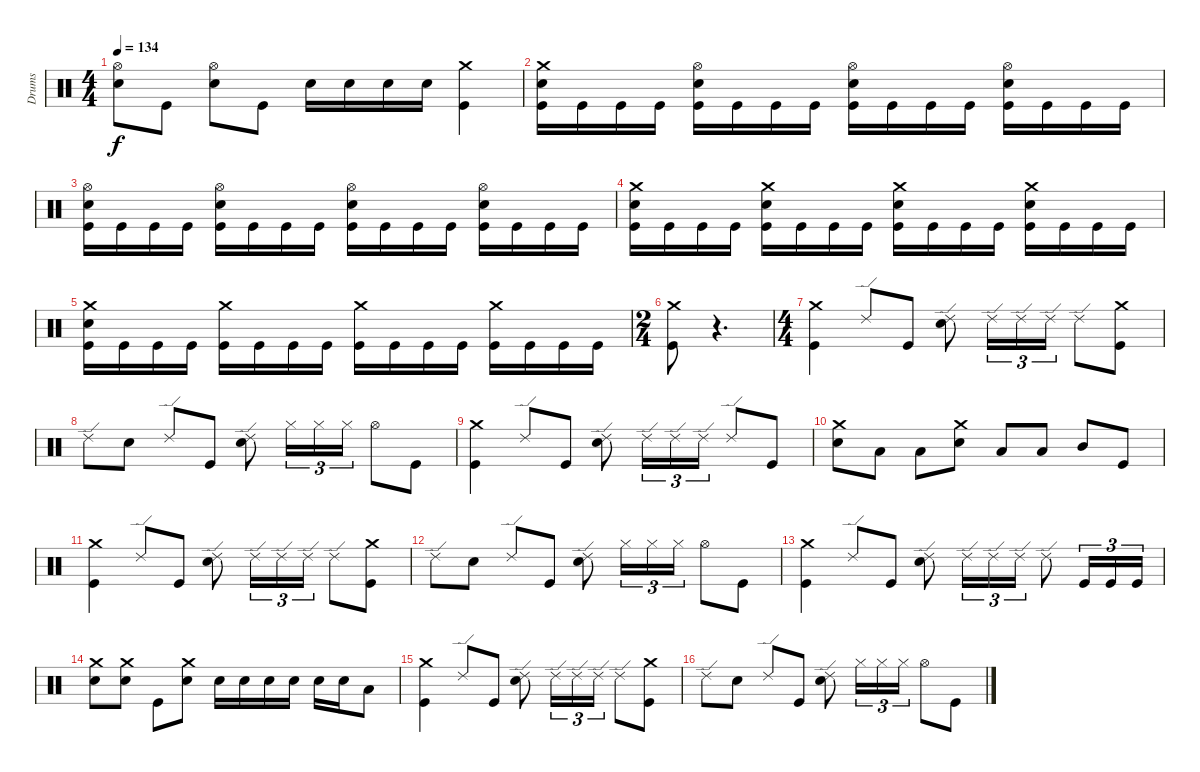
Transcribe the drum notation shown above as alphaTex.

\track ("Drums" "Drums") {instrument percussion}
\staff {score}
\articulation defaults
\ts (4 4)
\tempo 134
\clef neutral
\ks c
("Hi-Hat (open)" "Snare (hit) 2").8{dy f} "Kick (hit)".8 ("Hi-Hat (open)" "Snare (hit) 2").8 "Kick (hit)".8 "Snare (hit) 2".16 "Snare (hit) 2".16 "Snare (hit) 2".16 "Snare (hit) 2".16 ("Crash medium (hit)" "Kick (hit)").4 |
("Snare (hit) 2" "Crash medium (hit)" "Kick (hit)").16 "Kick (hit)".16 "Kick (hit)".16 "Kick (hit)".16 ("Snare (hit) 2" "Hi-Hat (open)" "Kick (hit)").16 "Kick (hit)".16 "Kick (hit)".16 "Kick (hit)".16 ("Snare (hit) 2" "Hi-Hat (open)" "Kick (hit)").16 "Kick (hit)".16 "Kick (hit)".16 "Kick (hit)".16 ("Snare (hit) 2" "Hi-Hat (open)" "Kick (hit)").16 "Kick (hit)".16 "Kick (hit)".16 "Kick (hit)".16 |
("Snare (hit) 2" "Hi-Hat (open)" "Kick (hit)").16 "Kick (hit)".16 "Kick (hit)".16 "Kick (hit)".16 ("Snare (hit) 2" "Hi-Hat (open)" "Kick (hit)").16 "Kick (hit)".16 "Kick (hit)".16 "Kick (hit)".16 ("Snare (hit) 2" "Hi-Hat (open)" "Kick (hit)").16 "Kick (hit)".16 "Kick (hit)".16 "Kick (hit)".16 ("Snare (hit) 2" "Hi-Hat (open)" "Kick (hit)").16 "Kick (hit)".16 "Kick (hit)".16 "Kick (hit)".16 |
("Snare (hit) 2" "Crash medium (hit)" "Kick (hit)").16 "Kick (hit)".16 "Kick (hit)".16 "Kick (hit)".16 ("Snare (hit) 2" "Crash medium (hit)" "Kick (hit)").16 "Kick (hit)".16 "Kick (hit)".16 "Kick (hit)".16 ("Snare (hit) 2" "Crash medium (hit)" "Kick (hit)").16 "Kick (hit)".16 "Kick (hit)".16 "Kick (hit)".16 ("Snare (hit) 2" "Crash medium (hit)" "Kick (hit)").16 "Kick (hit)".16 "Kick (hit)".16 "Kick (hit)".16 |
("Snare (hit) 2" "Crash medium (hit)" "Kick (hit)").16 "Kick (hit)".16 "Kick (hit)".16 "Kick (hit)".16 ("Crash medium (hit)" "Kick (hit)").16 "Kick (hit)".16 "Kick (hit)".16 "Kick (hit)".16 ("Crash medium (hit)" "Kick (hit)").16 "Kick (hit)".16 "Kick (hit)".16 "Kick (hit)".16 ("Crash medium (hit)" "Kick (hit)").16 "Kick (hit)".16 "Kick (hit)".16 "Kick (hit)".16 |
\ts (2 4)
("Crash medium (hit)" "Kick (hit)").8 r.4{d volume 0} |
\ts (4 4)
("Crash medium (hit)" "Kick (hit)").4{volume 8} "Ride (edge) 2".8 "Kick (hit)".8 ("Ride (edge) 2" "Snare (hit) 2").8 "Ride (edge) 2".16{tu (3 2)} "Ride (edge) 2".16{tu (3 2)} "Ride (edge) 2".16{tu (3 2)} "Ride (edge) 2".8 ("Crash medium (hit)" "Kick (hit)").8 |
"Ride (edge) 2".8 "Snare (hit) 2".8 "Ride (edge) 2".8 "Kick (hit)".8 ("Ride (edge) 2" "Snare (hit) 2").8 "Hi-Hat (closed)".16{tu (3 2)} "Hi-Hat (closed)".16{tu (3 2)} "Hi-Hat (closed)".16{tu (3 2)} "Hi-Hat (open)".8 "Kick (hit)".8 |
("Crash medium (hit)" "Kick (hit)").4 "Ride (edge) 2".8 "Kick (hit)".8 ("Ride (edge) 2" "Snare (hit) 2").8 "Ride (edge) 2".16{tu (3 2)} "Ride (edge) 2".16{tu (3 2)} "Ride (edge) 2".16{tu (3 2)} "Ride (edge) 2".8 "Kick (hit)".8 |
("Crash medium (hit)" "Snare (hit) 2").8 "Low Floor Tom (hit)".8 "Low Tom (hit)".8 ("Crash medium (hit)" "Snare (hit) 2").8 "Low Floor Tom (hit)".8 "Low Tom (hit)".8 "Mid Tom (hit)".8 "Kick (hit)".8 |
("Crash medium (hit)" "Kick (hit)").4 "Ride (edge) 2".8 "Kick (hit)".8 ("Ride (edge) 2" "Snare (hit) 2").8 "Ride (edge) 2".16{tu (3 2)} "Ride (edge) 2".16{tu (3 2)} "Ride (edge) 2".16{tu (3 2)} "Ride (edge) 2".8 ("Crash medium (hit)" "Kick (hit)").8 |
"Ride (edge) 2".8 "Snare (hit) 2".8 "Ride (edge) 2".8 "Kick (hit)".8 ("Ride (edge) 2" "Snare (hit) 2").8 "Hi-Hat (closed)".16{tu (3 2)} "Hi-Hat (closed)".16{tu (3 2)} "Hi-Hat (closed)".16{tu (3 2)} "Hi-Hat (open)".8 "Kick (hit)".8 |
("Crash medium (hit)" "Kick (hit)").4 "Ride (edge) 2".8 "Kick (hit)".8 ("Ride (edge) 2" "Snare (hit) 2").8 "Ride (edge) 2".16{tu (3 2)} "Ride (edge) 2".16{tu (3 2)} "Ride (edge) 2".16{tu (3 2)} "Ride (edge) 2".8 "Kick (hit)".16{tu (3 2)} "Kick (hit)".16{tu (3 2)} "Kick (hit)".16{tu (3 2)} |
("Crash medium (hit)" "Snare (hit) 2").8 ("Crash medium (hit)" "Snare (hit) 2").8 "Kick (hit)".8 ("Crash medium (hit)" "Snare (hit) 2").8 "Snare (hit) 2".16 "Snare (hit) 2".16 "Snare (hit) 2".16 "Snare (hit) 2".16 "Snare (hit) 2".16 "Snare (hit) 2".16 "Low Tom (hit)".8 |
("Crash medium (hit)" "Kick (hit)").4 "Ride (edge) 2".8 "Kick (hit)".8 ("Ride (edge) 2" "Snare (hit) 2").8 "Ride (edge) 2".16{tu (3 2)} "Ride (edge) 2".16{tu (3 2)} "Ride (edge) 2".16{tu (3 2)} "Ride (edge) 2".8 ("Crash medium (hit)" "Kick (hit)").8 |
"Ride (edge) 2".8 "Snare (hit) 2".8 "Ride (edge) 2".8 "Kick (hit)".8 ("Ride (edge) 2" "Snare (hit) 2").8 "Hi-Hat (closed)".16{tu (3 2)} "Hi-Hat (closed)".16{tu (3 2)} "Hi-Hat (closed)".16{tu (3 2)} "Hi-Hat (open)".8 "Kick (hit)".8
